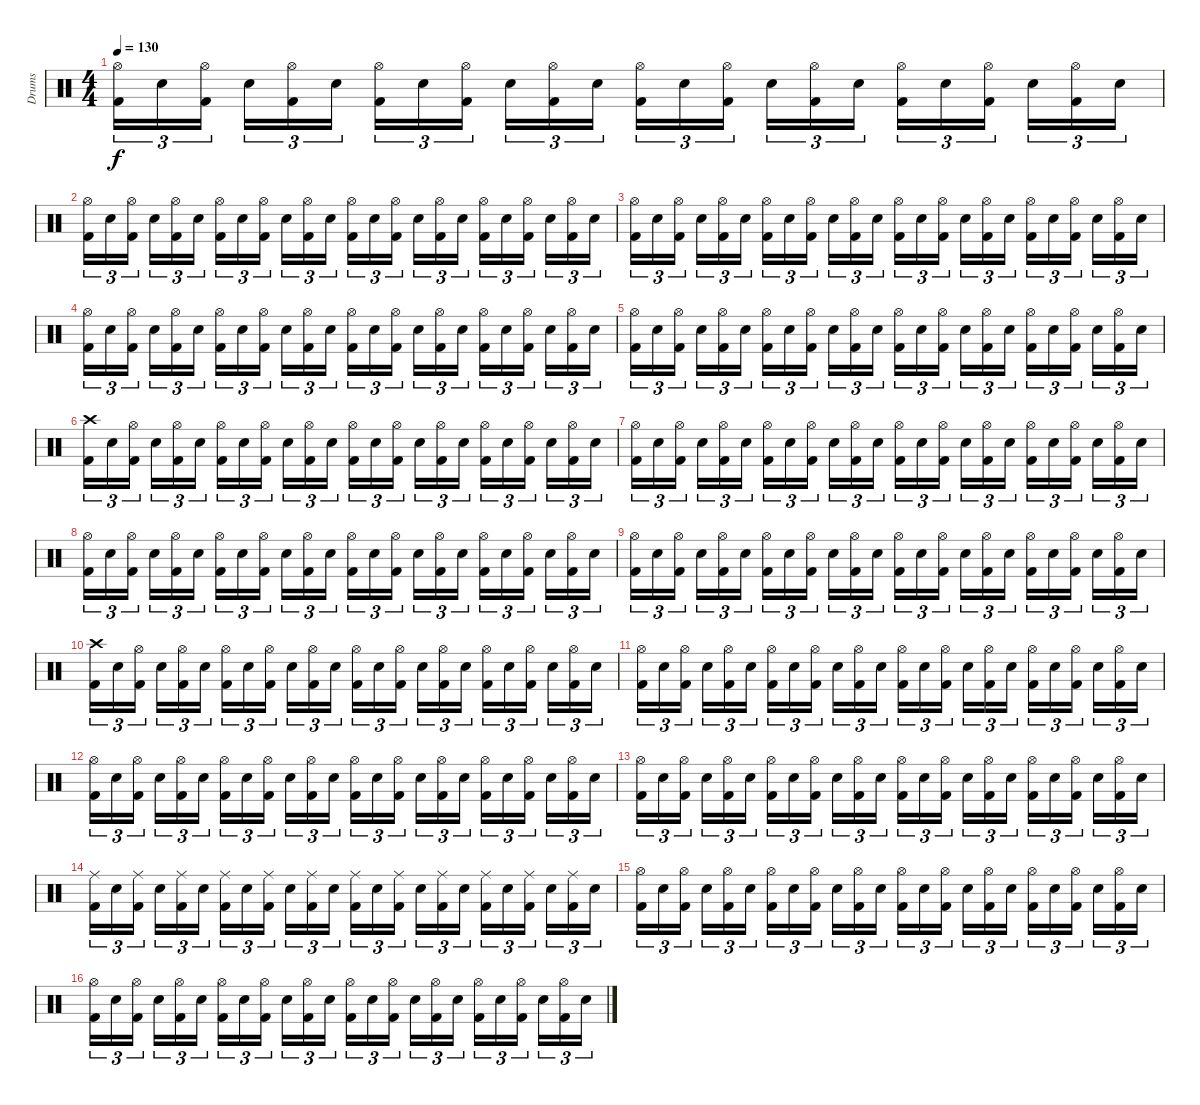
\track ("Drums" "Drums") {instrument percussion}
\staff {score}
\articulation defaults
\ts (4 4)
\tempo 130
\clef neutral
\ks c
("Hi-Hat (open)" "Kick (hit) 2").16{tu (3 2) dy f} "Electric Snare (hit)".16{tu (3 2)} ("Hi-Hat (open)" "Kick (hit) 2").16{tu (3 2)} "Electric Snare (hit)".16{tu (3 2)} ("Hi-Hat (open)" "Kick (hit) 2").16{tu (3 2)} "Electric Snare (hit)".16{tu (3 2)} ("Hi-Hat (open)" "Kick (hit) 2").16{tu (3 2)} "Electric Snare (hit)".16{tu (3 2)} ("Hi-Hat (open)" "Kick (hit) 2").16{tu (3 2)} "Electric Snare (hit)".16{tu (3 2)} ("Hi-Hat (open)" "Kick (hit) 2").16{tu (3 2)} "Electric Snare (hit)".16{tu (3 2)} ("Hi-Hat (open)" "Kick (hit) 2").16{tu (3 2)} "Electric Snare (hit)".16{tu (3 2)} ("Hi-Hat (open)" "Kick (hit) 2").16{tu (3 2)} "Electric Snare (hit)".16{tu (3 2)} ("Hi-Hat (open)" "Kick (hit) 2").16{tu (3 2)} "Electric Snare (hit)".16{tu (3 2)} ("Hi-Hat (open)" "Kick (hit) 2").16{tu (3 2)} "Electric Snare (hit)".16{tu (3 2)} ("Hi-Hat (open)" "Kick (hit) 2").16{tu (3 2)} "Electric Snare (hit)".16{tu (3 2)} ("Hi-Hat (open)" "Kick (hit) 2").16{tu (3 2)} "Electric Snare (hit)".16{tu (3 2)} |
("Hi-Hat (open)" "Kick (hit) 2").16{tu (3 2)} "Electric Snare (hit)".16{tu (3 2)} ("Hi-Hat (open)" "Kick (hit) 2").16{tu (3 2)} "Electric Snare (hit)".16{tu (3 2)} ("Hi-Hat (open)" "Kick (hit) 2").16{tu (3 2)} "Electric Snare (hit)".16{tu (3 2)} ("Hi-Hat (open)" "Kick (hit) 2").16{tu (3 2)} "Electric Snare (hit)".16{tu (3 2)} ("Hi-Hat (open)" "Kick (hit) 2").16{tu (3 2)} "Electric Snare (hit)".16{tu (3 2)} ("Hi-Hat (open)" "Kick (hit) 2").16{tu (3 2)} "Electric Snare (hit)".16{tu (3 2)} ("Hi-Hat (open)" "Kick (hit) 2").16{tu (3 2)} "Electric Snare (hit)".16{tu (3 2)} ("Hi-Hat (open)" "Kick (hit) 2").16{tu (3 2)} "Electric Snare (hit)".16{tu (3 2)} ("Hi-Hat (open)" "Kick (hit) 2").16{tu (3 2)} "Electric Snare (hit)".16{tu (3 2)} ("Hi-Hat (open)" "Kick (hit) 2").16{tu (3 2)} "Electric Snare (hit)".16{tu (3 2)} ("Hi-Hat (open)" "Kick (hit) 2").16{tu (3 2)} "Electric Snare (hit)".16{tu (3 2)} ("Hi-Hat (open)" "Kick (hit) 2").16{tu (3 2)} "Electric Snare (hit)".16{tu (3 2)} |
("Hi-Hat (open)" "Kick (hit) 2").16{tu (3 2)} "Electric Snare (hit)".16{tu (3 2)} ("Hi-Hat (open)" "Kick (hit) 2").16{tu (3 2)} "Electric Snare (hit)".16{tu (3 2)} ("Hi-Hat (open)" "Kick (hit) 2").16{tu (3 2)} "Electric Snare (hit)".16{tu (3 2)} ("Hi-Hat (open)" "Kick (hit) 2").16{tu (3 2)} "Electric Snare (hit)".16{tu (3 2)} ("Hi-Hat (open)" "Kick (hit) 2").16{tu (3 2)} "Electric Snare (hit)".16{tu (3 2)} ("Hi-Hat (open)" "Kick (hit) 2").16{tu (3 2)} "Electric Snare (hit)".16{tu (3 2)} ("Hi-Hat (open)" "Kick (hit) 2").16{tu (3 2)} "Electric Snare (hit)".16{tu (3 2)} ("Hi-Hat (open)" "Kick (hit) 2").16{tu (3 2)} "Electric Snare (hit)".16{tu (3 2)} ("Hi-Hat (open)" "Kick (hit) 2").16{tu (3 2)} "Electric Snare (hit)".16{tu (3 2)} ("Hi-Hat (open)" "Kick (hit) 2").16{tu (3 2)} "Electric Snare (hit)".16{tu (3 2)} ("Hi-Hat (open)" "Kick (hit) 2").16{tu (3 2)} "Electric Snare (hit)".16{tu (3 2)} ("Hi-Hat (open)" "Kick (hit) 2").16{tu (3 2)} "Electric Snare (hit)".16{tu (3 2)} |
("Hi-Hat (open)" "Kick (hit) 2").16{tu (3 2)} "Electric Snare (hit)".16{tu (3 2)} ("Hi-Hat (open)" "Kick (hit) 2").16{tu (3 2)} "Electric Snare (hit)".16{tu (3 2)} ("Hi-Hat (open)" "Kick (hit) 2").16{tu (3 2)} "Electric Snare (hit)".16{tu (3 2)} ("Hi-Hat (open)" "Kick (hit) 2").16{tu (3 2)} "Electric Snare (hit)".16{tu (3 2)} ("Hi-Hat (open)" "Kick (hit) 2").16{tu (3 2)} "Electric Snare (hit)".16{tu (3 2)} ("Hi-Hat (open)" "Kick (hit) 2").16{tu (3 2)} "Electric Snare (hit)".16{tu (3 2)} ("Hi-Hat (open)" "Kick (hit) 2").16{tu (3 2)} "Electric Snare (hit)".16{tu (3 2)} ("Hi-Hat (open)" "Kick (hit) 2").16{tu (3 2)} "Electric Snare (hit)".16{tu (3 2)} ("Hi-Hat (open)" "Kick (hit) 2").16{tu (3 2)} "Electric Snare (hit)".16{tu (3 2)} ("Hi-Hat (open)" "Kick (hit) 2").16{tu (3 2)} "Electric Snare (hit)".16{tu (3 2)} ("Hi-Hat (open)" "Kick (hit) 2").16{tu (3 2)} "Electric Snare (hit)".16{tu (3 2)} ("Hi-Hat (open)" "Kick (hit) 2").16{tu (3 2)} "Electric Snare (hit)".16{tu (3 2)} |
("Hi-Hat (open)" "Kick (hit) 2").16{tu (3 2)} "Electric Snare (hit)".16{tu (3 2)} ("Hi-Hat (open)" "Kick (hit) 2").16{tu (3 2)} "Electric Snare (hit)".16{tu (3 2)} ("Hi-Hat (open)" "Kick (hit) 2").16{tu (3 2)} "Electric Snare (hit)".16{tu (3 2)} ("Hi-Hat (open)" "Kick (hit) 2").16{tu (3 2)} "Electric Snare (hit)".16{tu (3 2)} ("Hi-Hat (open)" "Kick (hit) 2").16{tu (3 2)} "Electric Snare (hit)".16{tu (3 2)} ("Hi-Hat (open)" "Kick (hit) 2").16{tu (3 2)} "Electric Snare (hit)".16{tu (3 2)} ("Hi-Hat (open)" "Kick (hit) 2").16{tu (3 2)} "Electric Snare (hit)".16{tu (3 2)} ("Hi-Hat (open)" "Kick (hit) 2").16{tu (3 2)} "Electric Snare (hit)".16{tu (3 2)} ("Hi-Hat (open)" "Kick (hit) 2").16{tu (3 2)} "Electric Snare (hit)".16{tu (3 2)} ("Hi-Hat (open)" "Kick (hit) 2").16{tu (3 2)} "Electric Snare (hit)".16{tu (3 2)} ("Hi-Hat (open)" "Kick (hit) 2").16{tu (3 2)} "Electric Snare (hit)".16{tu (3 2)} ("Hi-Hat (open)" "Kick (hit) 2").16{tu (3 2)} "Electric Snare (hit)".16{tu (3 2)} |
("Crash high (hit)" "Kick (hit) 2").16{tu (3 2)} "Electric Snare (hit)".16{tu (3 2)} ("Hi-Hat (open)" "Kick (hit) 2").16{tu (3 2)} "Electric Snare (hit)".16{tu (3 2)} ("Hi-Hat (open)" "Kick (hit) 2").16{tu (3 2)} "Electric Snare (hit)".16{tu (3 2)} ("Hi-Hat (open)" "Kick (hit) 2").16{tu (3 2)} "Electric Snare (hit)".16{tu (3 2)} ("Hi-Hat (open)" "Kick (hit) 2").16{tu (3 2)} "Electric Snare (hit)".16{tu (3 2)} ("Hi-Hat (open)" "Kick (hit) 2").16{tu (3 2)} "Electric Snare (hit)".16{tu (3 2)} ("Hi-Hat (open)" "Kick (hit) 2").16{tu (3 2)} "Electric Snare (hit)".16{tu (3 2)} ("Hi-Hat (open)" "Kick (hit) 2").16{tu (3 2)} "Electric Snare (hit)".16{tu (3 2)} ("Hi-Hat (open)" "Kick (hit) 2").16{tu (3 2)} "Electric Snare (hit)".16{tu (3 2)} ("Hi-Hat (open)" "Kick (hit) 2").16{tu (3 2)} "Electric Snare (hit)".16{tu (3 2)} ("Hi-Hat (open)" "Kick (hit) 2").16{tu (3 2)} "Electric Snare (hit)".16{tu (3 2)} ("Hi-Hat (open)" "Kick (hit) 2").16{tu (3 2)} "Electric Snare (hit)".16{tu (3 2)} |
("Hi-Hat (open)" "Kick (hit) 2").16{tu (3 2)} "Electric Snare (hit)".16{tu (3 2)} ("Hi-Hat (open)" "Kick (hit) 2").16{tu (3 2)} "Electric Snare (hit)".16{tu (3 2)} ("Hi-Hat (open)" "Kick (hit) 2").16{tu (3 2)} "Electric Snare (hit)".16{tu (3 2)} ("Hi-Hat (open)" "Kick (hit) 2").16{tu (3 2)} "Electric Snare (hit)".16{tu (3 2)} ("Hi-Hat (open)" "Kick (hit) 2").16{tu (3 2)} "Electric Snare (hit)".16{tu (3 2)} ("Hi-Hat (open)" "Kick (hit) 2").16{tu (3 2)} "Electric Snare (hit)".16{tu (3 2)} ("Hi-Hat (open)" "Kick (hit) 2").16{tu (3 2)} "Electric Snare (hit)".16{tu (3 2)} ("Hi-Hat (open)" "Kick (hit) 2").16{tu (3 2)} "Electric Snare (hit)".16{tu (3 2)} ("Hi-Hat (open)" "Kick (hit) 2").16{tu (3 2)} "Electric Snare (hit)".16{tu (3 2)} ("Hi-Hat (open)" "Kick (hit) 2").16{tu (3 2)} "Electric Snare (hit)".16{tu (3 2)} ("Hi-Hat (open)" "Kick (hit) 2").16{tu (3 2)} "Electric Snare (hit)".16{tu (3 2)} ("Hi-Hat (open)" "Kick (hit) 2").16{tu (3 2)} "Electric Snare (hit)".16{tu (3 2)} |
("Hi-Hat (open)" "Kick (hit) 2").16{tu (3 2)} "Electric Snare (hit)".16{tu (3 2)} ("Hi-Hat (open)" "Kick (hit) 2").16{tu (3 2)} "Electric Snare (hit)".16{tu (3 2)} ("Hi-Hat (open)" "Kick (hit) 2").16{tu (3 2)} "Electric Snare (hit)".16{tu (3 2)} ("Hi-Hat (open)" "Kick (hit) 2").16{tu (3 2)} "Electric Snare (hit)".16{tu (3 2)} ("Hi-Hat (open)" "Kick (hit) 2").16{tu (3 2)} "Electric Snare (hit)".16{tu (3 2)} ("Hi-Hat (open)" "Kick (hit) 2").16{tu (3 2)} "Electric Snare (hit)".16{tu (3 2)} ("Hi-Hat (open)" "Kick (hit) 2").16{tu (3 2)} "Electric Snare (hit)".16{tu (3 2)} ("Hi-Hat (open)" "Kick (hit) 2").16{tu (3 2)} "Electric Snare (hit)".16{tu (3 2)} ("Hi-Hat (open)" "Kick (hit) 2").16{tu (3 2)} "Electric Snare (hit)".16{tu (3 2)} ("Hi-Hat (open)" "Kick (hit) 2").16{tu (3 2)} "Electric Snare (hit)".16{tu (3 2)} ("Hi-Hat (open)" "Kick (hit) 2").16{tu (3 2)} "Electric Snare (hit)".16{tu (3 2)} ("Hi-Hat (open)" "Kick (hit) 2").16{tu (3 2)} "Electric Snare (hit)".16{tu (3 2)} |
("Hi-Hat (open)" "Kick (hit) 2").16{tu (3 2)} "Electric Snare (hit)".16{tu (3 2)} ("Hi-Hat (open)" "Kick (hit) 2").16{tu (3 2)} "Electric Snare (hit)".16{tu (3 2)} ("Hi-Hat (open)" "Kick (hit) 2").16{tu (3 2)} "Electric Snare (hit)".16{tu (3 2)} ("Hi-Hat (open)" "Kick (hit) 2").16{tu (3 2)} "Electric Snare (hit)".16{tu (3 2)} ("Hi-Hat (open)" "Kick (hit) 2").16{tu (3 2)} "Electric Snare (hit)".16{tu (3 2)} ("Hi-Hat (open)" "Kick (hit) 2").16{tu (3 2)} "Electric Snare (hit)".16{tu (3 2)} ("Hi-Hat (open)" "Kick (hit) 2").16{tu (3 2)} "Electric Snare (hit)".16{tu (3 2)} ("Hi-Hat (open)" "Kick (hit) 2").16{tu (3 2)} "Electric Snare (hit)".16{tu (3 2)} ("Hi-Hat (open)" "Kick (hit) 2").16{tu (3 2)} "Electric Snare (hit)".16{tu (3 2)} ("Hi-Hat (open)" "Kick (hit) 2").16{tu (3 2)} "Electric Snare (hit)".16{tu (3 2)} ("Hi-Hat (open)" "Kick (hit) 2").16{tu (3 2)} "Electric Snare (hit)".16{tu (3 2)} ("Hi-Hat (open)" "Kick (hit) 2").16{tu (3 2)} "Electric Snare (hit)".16{tu (3 2)} |
("Crash high (hit)" "Kick (hit) 2").16{tu (3 2)} "Electric Snare (hit)".16{tu (3 2)} ("Hi-Hat (open)" "Kick (hit) 2").16{tu (3 2)} "Electric Snare (hit)".16{tu (3 2)} ("Hi-Hat (open)" "Kick (hit) 2").16{tu (3 2)} "Electric Snare (hit)".16{tu (3 2)} ("Hi-Hat (open)" "Kick (hit) 2").16{tu (3 2)} "Electric Snare (hit)".16{tu (3 2)} ("Hi-Hat (open)" "Kick (hit) 2").16{tu (3 2)} "Electric Snare (hit)".16{tu (3 2)} ("Hi-Hat (open)" "Kick (hit) 2").16{tu (3 2)} "Electric Snare (hit)".16{tu (3 2)} ("Hi-Hat (open)" "Kick (hit) 2").16{tu (3 2)} "Electric Snare (hit)".16{tu (3 2)} ("Hi-Hat (open)" "Kick (hit) 2").16{tu (3 2)} "Electric Snare (hit)".16{tu (3 2)} ("Hi-Hat (open)" "Kick (hit) 2").16{tu (3 2)} "Electric Snare (hit)".16{tu (3 2)} ("Hi-Hat (open)" "Kick (hit) 2").16{tu (3 2)} "Electric Snare (hit)".16{tu (3 2)} ("Hi-Hat (open)" "Kick (hit) 2").16{tu (3 2)} "Electric Snare (hit)".16{tu (3 2)} ("Hi-Hat (open)" "Kick (hit) 2").16{tu (3 2)} "Electric Snare (hit)".16{tu (3 2)} |
("Hi-Hat (open)" "Kick (hit) 2").16{tu (3 2)} "Electric Snare (hit)".16{tu (3 2)} ("Hi-Hat (open)" "Kick (hit) 2").16{tu (3 2)} "Electric Snare (hit)".16{tu (3 2)} ("Hi-Hat (open)" "Kick (hit) 2").16{tu (3 2)} "Electric Snare (hit)".16{tu (3 2)} ("Hi-Hat (open)" "Kick (hit) 2").16{tu (3 2)} "Electric Snare (hit)".16{tu (3 2)} ("Hi-Hat (open)" "Kick (hit) 2").16{tu (3 2)} "Electric Snare (hit)".16{tu (3 2)} ("Hi-Hat (open)" "Kick (hit) 2").16{tu (3 2)} "Electric Snare (hit)".16{tu (3 2)} ("Hi-Hat (open)" "Kick (hit) 2").16{tu (3 2)} "Electric Snare (hit)".16{tu (3 2)} ("Hi-Hat (open)" "Kick (hit) 2").16{tu (3 2)} "Electric Snare (hit)".16{tu (3 2)} ("Hi-Hat (open)" "Kick (hit) 2").16{tu (3 2)} "Electric Snare (hit)".16{tu (3 2)} ("Hi-Hat (open)" "Kick (hit) 2").16{tu (3 2)} "Electric Snare (hit)".16{tu (3 2)} ("Hi-Hat (open)" "Kick (hit) 2").16{tu (3 2)} "Electric Snare (hit)".16{tu (3 2)} ("Hi-Hat (open)" "Kick (hit) 2").16{tu (3 2)} "Electric Snare (hit)".16{tu (3 2)} |
("Hi-Hat (open)" "Kick (hit) 2").16{tu (3 2)} "Electric Snare (hit)".16{tu (3 2)} ("Hi-Hat (open)" "Kick (hit) 2").16{tu (3 2)} "Electric Snare (hit)".16{tu (3 2)} ("Hi-Hat (open)" "Kick (hit) 2").16{tu (3 2)} "Electric Snare (hit)".16{tu (3 2)} ("Hi-Hat (open)" "Kick (hit) 2").16{tu (3 2)} "Electric Snare (hit)".16{tu (3 2)} ("Hi-Hat (open)" "Kick (hit) 2").16{tu (3 2)} "Electric Snare (hit)".16{tu (3 2)} ("Hi-Hat (open)" "Kick (hit) 2").16{tu (3 2)} "Electric Snare (hit)".16{tu (3 2)} ("Hi-Hat (open)" "Kick (hit) 2").16{tu (3 2)} "Electric Snare (hit)".16{tu (3 2)} ("Hi-Hat (open)" "Kick (hit) 2").16{tu (3 2)} "Electric Snare (hit)".16{tu (3 2)} ("Hi-Hat (open)" "Kick (hit) 2").16{tu (3 2)} "Electric Snare (hit)".16{tu (3 2)} ("Hi-Hat (open)" "Kick (hit) 2").16{tu (3 2)} "Electric Snare (hit)".16{tu (3 2)} ("Hi-Hat (open)" "Kick (hit) 2").16{tu (3 2)} "Electric Snare (hit)".16{tu (3 2)} ("Hi-Hat (open)" "Kick (hit) 2").16{tu (3 2)} "Electric Snare (hit)".16{tu (3 2)} |
("Hi-Hat (open)" "Kick (hit) 2").16{tu (3 2)} "Electric Snare (hit)".16{tu (3 2)} ("Hi-Hat (open)" "Kick (hit) 2").16{tu (3 2)} "Electric Snare (hit)".16{tu (3 2)} ("Hi-Hat (open)" "Kick (hit) 2").16{tu (3 2)} "Electric Snare (hit)".16{tu (3 2)} ("Hi-Hat (open)" "Kick (hit) 2").16{tu (3 2)} "Electric Snare (hit)".16{tu (3 2)} ("Hi-Hat (open)" "Kick (hit) 2").16{tu (3 2)} "Electric Snare (hit)".16{tu (3 2)} ("Hi-Hat (open)" "Kick (hit) 2").16{tu (3 2)} "Electric Snare (hit)".16{tu (3 2)} ("Hi-Hat (open)" "Kick (hit) 2").16{tu (3 2)} "Electric Snare (hit)".16{tu (3 2)} ("Hi-Hat (open)" "Kick (hit) 2").16{tu (3 2)} "Electric Snare (hit)".16{tu (3 2)} ("Hi-Hat (open)" "Kick (hit) 2").16{tu (3 2)} "Electric Snare (hit)".16{tu (3 2)} ("Hi-Hat (open)" "Kick (hit) 2").16{tu (3 2)} "Electric Snare (hit)".16{tu (3 2)} ("Hi-Hat (open)" "Kick (hit) 2").16{tu (3 2)} "Electric Snare (hit)".16{tu (3 2)} ("Hi-Hat (open)" "Kick (hit) 2").16{tu (3 2)} "Electric Snare (hit)".16{tu (3 2)} |
("Ride (middle)" "Kick (hit) 2").16{tu (3 2)} "Electric Snare (hit)".16{tu (3 2)} ("Ride (middle)" "Kick (hit) 2").16{tu (3 2)} "Electric Snare (hit)".16{tu (3 2)} ("Ride (middle)" "Kick (hit) 2").16{tu (3 2)} "Electric Snare (hit)".16{tu (3 2)} ("Ride (middle)" "Kick (hit) 2").16{tu (3 2)} "Electric Snare (hit)".16{tu (3 2)} ("Ride (middle)" "Kick (hit) 2").16{tu (3 2)} "Electric Snare (hit)".16{tu (3 2)} ("Ride (middle)" "Kick (hit) 2").16{tu (3 2)} "Electric Snare (hit)".16{tu (3 2)} ("Ride (middle)" "Kick (hit) 2").16{tu (3 2)} "Electric Snare (hit)".16{tu (3 2)} ("Ride (middle)" "Kick (hit) 2").16{tu (3 2)} "Electric Snare (hit)".16{tu (3 2)} ("Ride (middle)" "Kick (hit) 2").16{tu (3 2)} "Electric Snare (hit)".16{tu (3 2)} ("Ride (middle)" "Kick (hit) 2").16{tu (3 2)} "Electric Snare (hit)".16{tu (3 2)} ("Ride (middle)" "Kick (hit) 2").16{tu (3 2)} "Electric Snare (hit)".16{tu (3 2)} ("Ride (middle)" "Kick (hit) 2").16{tu (3 2)} "Electric Snare (hit)".16{tu (3 2)} |
("Hi-Hat (open)" "Kick (hit) 2").16{tu (3 2)} "Electric Snare (hit)".16{tu (3 2)} ("Hi-Hat (open)" "Kick (hit) 2").16{tu (3 2)} "Electric Snare (hit)".16{tu (3 2)} ("Hi-Hat (open)" "Kick (hit) 2").16{tu (3 2)} "Electric Snare (hit)".16{tu (3 2)} ("Hi-Hat (open)" "Kick (hit) 2").16{tu (3 2)} "Electric Snare (hit)".16{tu (3 2)} ("Hi-Hat (open)" "Kick (hit) 2").16{tu (3 2)} "Electric Snare (hit)".16{tu (3 2)} ("Hi-Hat (open)" "Kick (hit) 2").16{tu (3 2)} "Electric Snare (hit)".16{tu (3 2)} ("Hi-Hat (open)" "Kick (hit) 2").16{tu (3 2)} "Electric Snare (hit)".16{tu (3 2)} ("Hi-Hat (open)" "Kick (hit) 2").16{tu (3 2)} "Electric Snare (hit)".16{tu (3 2)} ("Hi-Hat (open)" "Kick (hit) 2").16{tu (3 2)} "Electric Snare (hit)".16{tu (3 2)} ("Hi-Hat (open)" "Kick (hit) 2").16{tu (3 2)} "Electric Snare (hit)".16{tu (3 2)} ("Hi-Hat (open)" "Kick (hit) 2").16{tu (3 2)} "Electric Snare (hit)".16{tu (3 2)} ("Hi-Hat (open)" "Kick (hit) 2").16{tu (3 2)} "Electric Snare (hit)".16{tu (3 2)} |
("Hi-Hat (open)" "Kick (hit) 2").16{tu (3 2)} "Electric Snare (hit)".16{tu (3 2)} ("Hi-Hat (open)" "Kick (hit) 2").16{tu (3 2)} "Electric Snare (hit)".16{tu (3 2)} ("Hi-Hat (open)" "Kick (hit) 2").16{tu (3 2)} "Electric Snare (hit)".16{tu (3 2)} ("Hi-Hat (open)" "Kick (hit) 2").16{tu (3 2)} "Electric Snare (hit)".16{tu (3 2)} ("Hi-Hat (open)" "Kick (hit) 2").16{tu (3 2)} "Electric Snare (hit)".16{tu (3 2)} ("Hi-Hat (open)" "Kick (hit) 2").16{tu (3 2)} "Electric Snare (hit)".16{tu (3 2)} ("Hi-Hat (open)" "Kick (hit) 2").16{tu (3 2)} "Electric Snare (hit)".16{tu (3 2)} ("Hi-Hat (open)" "Kick (hit) 2").16{tu (3 2)} "Electric Snare (hit)".16{tu (3 2)} ("Hi-Hat (open)" "Kick (hit) 2").16{tu (3 2)} "Electric Snare (hit)".16{tu (3 2)} ("Hi-Hat (open)" "Kick (hit) 2").16{tu (3 2)} "Electric Snare (hit)".16{tu (3 2)} ("Hi-Hat (open)" "Kick (hit) 2").16{tu (3 2)} "Electric Snare (hit)".16{tu (3 2)} ("Hi-Hat (open)" "Kick (hit) 2").16{tu (3 2)} "Electric Snare (hit)".16{tu (3 2)}
